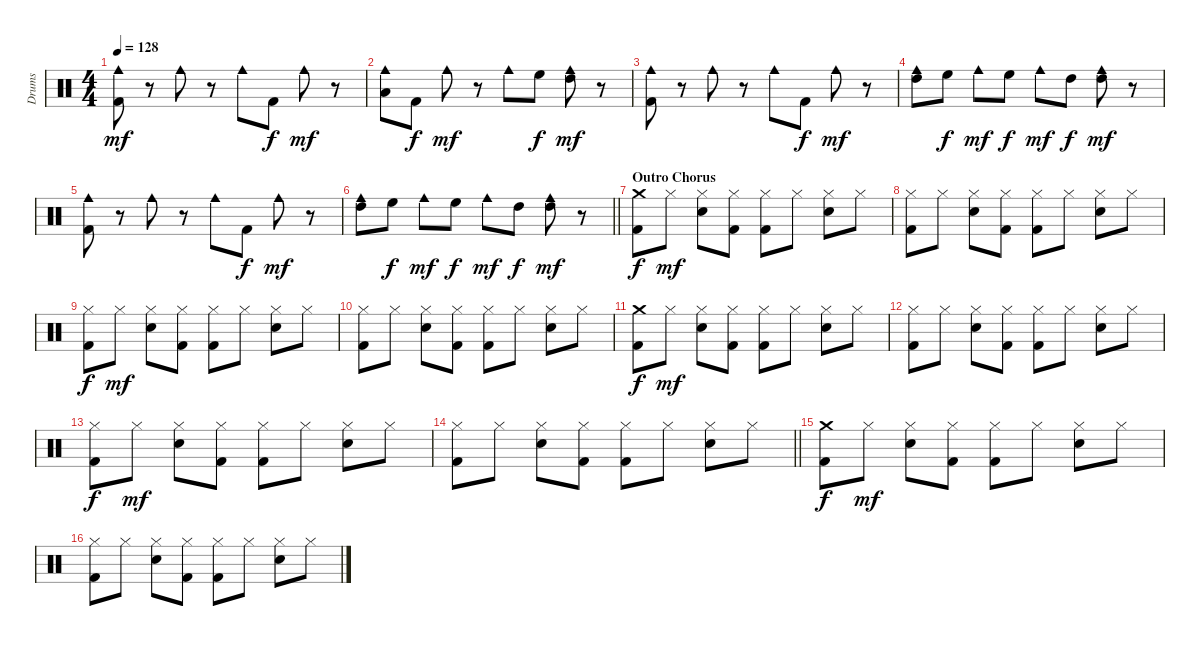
\track ("Drums" "Drums") {instrument percussion}
\staff {score}
\articulation defaults
\ts (4 4)
\tempo 128
\clef neutral
\ks c
("Cowbell medium (hit)" "Kick (hit) 2").8{dy mf} r.8 "Cowbell medium (hit)".8 r.8 "Cowbell medium (hit)".8 "Kick (hit) 2".8{dy f} "Cowbell medium (hit)".8{dy mf} r.8 |
("Cowbell medium (hit)" "Low Tom (hit)").8 "Kick (hit) 2".8{dy f} "Cowbell medium (hit)".8{dy mf} r.8 "Cowbell medium (hit)".8 "High Floor Tom (hit)".8{dy f} ("Cowbell medium (hit)" "High Tom (hit)").8{dy mf} r.8 |
("Cowbell medium (hit)" "Kick (hit) 2").8 r.8 "Cowbell medium (hit)".8 r.8 "Cowbell medium (hit)".8 "Kick (hit) 2".8{dy f} "Cowbell medium (hit)".8{dy mf} r.8 |
("Cowbell medium (hit)" "High Tom (hit)").8 "High Floor Tom (hit)".8{dy f} "Cowbell medium (hit)".8{dy mf} "High Floor Tom (hit)".8{dy f} "Cowbell medium (hit)".8{dy mf} "High Tom (hit)".8{dy f} ("Cowbell medium (hit)" "High Tom (hit)").8{dy mf} r.8 |
("Cowbell medium (hit)" "Kick (hit) 2").8 r.8 "Cowbell medium (hit)".8 r.8 "Cowbell medium (hit)".8 "Kick (hit) 2".8{dy f} "Cowbell medium (hit)".8{dy mf} r.8 |
\barLineRight lightlight
("Cowbell medium (hit)" "High Tom (hit)").8 "High Floor Tom (hit)".8{dy f} "Cowbell medium (hit)".8{dy mf} "High Floor Tom (hit)".8{dy f} "Cowbell medium (hit)".8{dy mf} "High Tom (hit)".8{dy f} ("Cowbell medium (hit)" "High Tom (hit)").8{dy mf} r.8 |
\section ("" "Outro Chorus")
("Crash medium (hit)" "Kick (hit) 2").8{dy f} "Hi-Hat (closed)".8{dy mf} ("Hi-Hat (closed)" "Snare (hit) 2").8 ("Hi-Hat (closed)" "Kick (hit) 2").8 ("Hi-Hat (closed)" "Kick (hit) 2").8 "Hi-Hat (closed)".8 ("Hi-Hat (closed)" "Snare (hit) 2").8 "Hi-Hat (closed)".8 |
("Hi-Hat (closed)" "Kick (hit) 2").8 "Hi-Hat (closed)".8 ("Hi-Hat (closed)" "Snare (hit) 2").8 ("Hi-Hat (closed)" "Kick (hit) 2").8 ("Hi-Hat (closed)" "Kick (hit) 2").8 "Hi-Hat (closed)".8 ("Hi-Hat (closed)" "Snare (hit) 2").8 "Hi-Hat (closed)".8 |
("Hi-Hat (closed)" "Kick (hit) 2").8{dy f} "Hi-Hat (closed)".8{dy mf} ("Hi-Hat (closed)" "Snare (hit) 2").8 ("Hi-Hat (closed)" "Kick (hit) 2").8 ("Hi-Hat (closed)" "Kick (hit) 2").8 "Hi-Hat (closed)".8 ("Hi-Hat (closed)" "Snare (hit) 2").8 "Hi-Hat (closed)".8 |
("Hi-Hat (closed)" "Kick (hit) 2").8 "Hi-Hat (closed)".8 ("Hi-Hat (closed)" "Snare (hit) 2").8 ("Hi-Hat (closed)" "Kick (hit) 2").8 ("Hi-Hat (closed)" "Kick (hit) 2").8 "Hi-Hat (closed)".8 ("Hi-Hat (closed)" "Snare (hit) 2").8 "Hi-Hat (closed)".8 |
("Crash medium (hit)" "Kick (hit) 2").8{dy f} "Hi-Hat (closed)".8{dy mf} ("Hi-Hat (closed)" "Snare (hit) 2").8 ("Hi-Hat (closed)" "Kick (hit) 2").8 ("Hi-Hat (closed)" "Kick (hit) 2").8 "Hi-Hat (closed)".8 ("Hi-Hat (closed)" "Snare (hit) 2").8 "Hi-Hat (closed)".8 |
("Hi-Hat (closed)" "Kick (hit) 2").8 "Hi-Hat (closed)".8 ("Hi-Hat (closed)" "Snare (hit) 2").8 ("Hi-Hat (closed)" "Kick (hit) 2").8 ("Hi-Hat (closed)" "Kick (hit) 2").8 "Hi-Hat (closed)".8 ("Hi-Hat (closed)" "Snare (hit) 2").8 "Hi-Hat (closed)".8 |
("Hi-Hat (closed)" "Kick (hit) 2").8{dy f} "Hi-Hat (closed)".8{dy mf} ("Hi-Hat (closed)" "Snare (hit) 2").8 ("Hi-Hat (closed)" "Kick (hit) 2").8 ("Hi-Hat (closed)" "Kick (hit) 2").8 "Hi-Hat (closed)".8 ("Hi-Hat (closed)" "Snare (hit) 2").8 "Hi-Hat (closed)".8 |
\barLineRight lightlight
("Hi-Hat (closed)" "Kick (hit) 2").8 "Hi-Hat (closed)".8 ("Hi-Hat (closed)" "Snare (hit) 2").8 ("Hi-Hat (closed)" "Kick (hit) 2").8 ("Hi-Hat (closed)" "Kick (hit) 2").8 "Hi-Hat (closed)".8 ("Hi-Hat (closed)" "Snare (hit) 2").8 "Hi-Hat (closed)".8 |
("Crash medium (hit)" "Kick (hit) 2").8{dy f} "Hi-Hat (closed)".8{dy mf} ("Hi-Hat (closed)" "Snare (hit) 2").8 ("Hi-Hat (closed)" "Kick (hit) 2").8 ("Hi-Hat (closed)" "Kick (hit) 2").8 "Hi-Hat (closed)".8 ("Hi-Hat (closed)" "Snare (hit) 2").8 "Hi-Hat (closed)".8 |
("Hi-Hat (closed)" "Kick (hit) 2").8 "Hi-Hat (closed)".8 ("Hi-Hat (closed)" "Snare (hit) 2").8 ("Hi-Hat (closed)" "Kick (hit) 2").8 ("Hi-Hat (closed)" "Kick (hit) 2").8 "Hi-Hat (closed)".8 ("Hi-Hat (closed)" "Snare (hit) 2").8 "Hi-Hat (closed)".8
